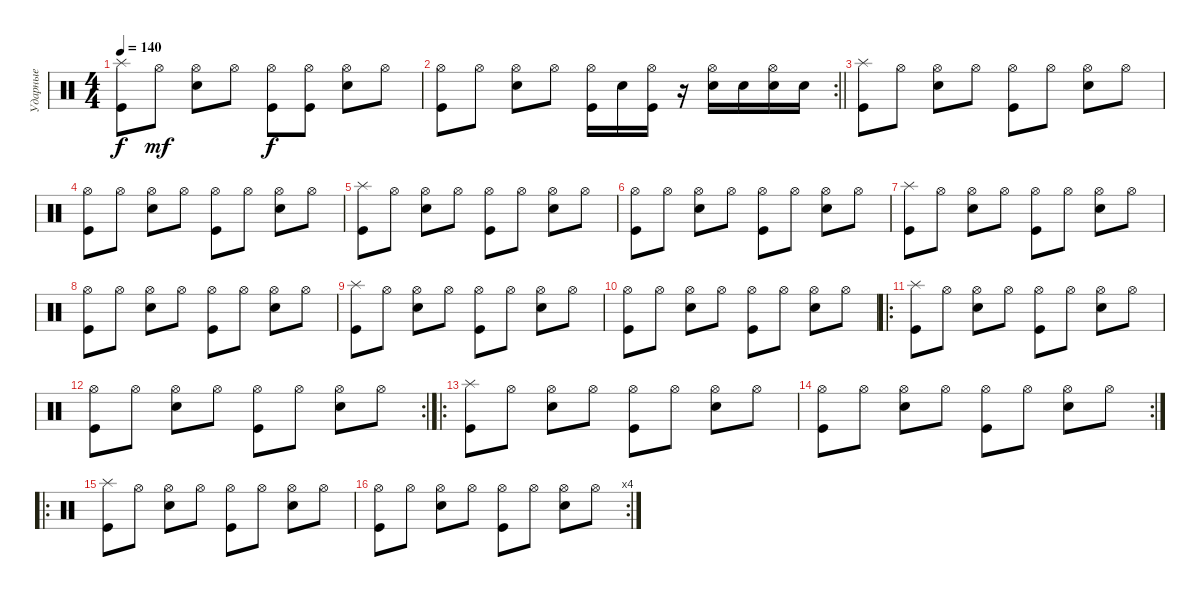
\track ("Ударные" "Ударные") {instrument percussion}
\staff {score}
\articulation defaults
\ts (4 4)
\tempo 140
\clef neutral
\ks c
("Splash (hit)" "Kick (hit)").8{dy f} "Hi-Hat (open)".8{dy mf} ("Hi-Hat (open)" "Snare (hit) 2").8 "Hi-Hat (open)".8 ("Hi-Hat (open)" "Kick (hit)").8{dy f} ("Hi-Hat (open)" "Kick (hit)").8 ("Hi-Hat (open)" "Snare (hit) 2").8 "Hi-Hat (open)".8 |
\rc 2
\barLineRight lightlight
("Hi-Hat (open)" "Kick (hit)").8 "Hi-Hat (open)".8 ("Hi-Hat (open)" "Snare (hit) 2").8 "Hi-Hat (open)".8 ("Hi-Hat (open)" "Kick (hit)").16 "Snare (hit) 2".16 ("Hi-Hat (open)" "Kick (hit)").16 r.16 ("Hi-Hat (open)" "Snare (hit) 2").16 "Snare (hit) 2".16 ("Hi-Hat (open)" "Snare (hit) 2").16 "Snare (hit) 2".16 |
("Splash (hit)" "Kick (hit)").8 "Hi-Hat (open)".8 ("Hi-Hat (open)" "Snare (hit) 2").8 "Hi-Hat (open)".8 ("Hi-Hat (open)" "Kick (hit)").8 "Hi-Hat (open)".8 ("Hi-Hat (open)" "Snare (hit) 2").8 "Hi-Hat (open)".8 |
("Hi-Hat (open)" "Kick (hit)").8 "Hi-Hat (open)".8 ("Hi-Hat (open)" "Snare (hit) 2").8 "Hi-Hat (open)".8 ("Hi-Hat (open)" "Kick (hit)").8 "Hi-Hat (open)".8 ("Hi-Hat (open)" "Snare (hit) 2").8 "Hi-Hat (open)".8 |
("Splash (hit)" "Kick (hit)").8 "Hi-Hat (open)".8 ("Hi-Hat (open)" "Snare (hit) 2").8 "Hi-Hat (open)".8 ("Hi-Hat (open)" "Kick (hit)").8 "Hi-Hat (open)".8 ("Hi-Hat (open)" "Snare (hit) 2").8 "Hi-Hat (open)".8 |
("Hi-Hat (open)" "Kick (hit)").8 "Hi-Hat (open)".8 ("Hi-Hat (open)" "Snare (hit) 2").8 "Hi-Hat (open)".8 ("Hi-Hat (open)" "Kick (hit)").8 "Hi-Hat (open)".8 ("Hi-Hat (open)" "Snare (hit) 2").8 "Hi-Hat (open)".8 |
("Splash (hit)" "Kick (hit)").8 "Hi-Hat (open)".8 ("Hi-Hat (open)" "Snare (hit) 2").8 "Hi-Hat (open)".8 ("Hi-Hat (open)" "Kick (hit)").8 "Hi-Hat (open)".8 ("Hi-Hat (open)" "Snare (hit) 2").8 "Hi-Hat (open)".8 |
("Hi-Hat (open)" "Kick (hit)").8 "Hi-Hat (open)".8 ("Hi-Hat (open)" "Snare (hit) 2").8 "Hi-Hat (open)".8 ("Hi-Hat (open)" "Kick (hit)").8 "Hi-Hat (open)".8 ("Hi-Hat (open)" "Snare (hit) 2").8 "Hi-Hat (open)".8 |
("Splash (hit)" "Kick (hit)").8 "Hi-Hat (open)".8 ("Hi-Hat (open)" "Snare (hit) 2").8 "Hi-Hat (open)".8 ("Hi-Hat (open)" "Kick (hit)").8 "Hi-Hat (open)".8 ("Hi-Hat (open)" "Snare (hit) 2").8 "Hi-Hat (open)".8 |
("Hi-Hat (open)" "Kick (hit)").8 "Hi-Hat (open)".8 ("Hi-Hat (open)" "Snare (hit) 2").8 "Hi-Hat (open)".8 ("Hi-Hat (open)" "Kick (hit)").8 "Hi-Hat (open)".8 ("Hi-Hat (open)" "Snare (hit) 2").8 "Hi-Hat (open)".8 |
\ro
("Splash (hit)" "Kick (hit)").8 "Hi-Hat (open)".8 ("Hi-Hat (open)" "Snare (hit) 2").8 "Hi-Hat (open)".8 ("Hi-Hat (open)" "Kick (hit)").8 "Hi-Hat (open)".8 ("Hi-Hat (open)" "Snare (hit) 2").8 "Hi-Hat (open)".8 |
\rc 2
("Hi-Hat (open)" "Kick (hit)").8 "Hi-Hat (open)".8 ("Hi-Hat (open)" "Snare (hit) 2").8 "Hi-Hat (open)".8 ("Hi-Hat (open)" "Kick (hit)").8 "Hi-Hat (open)".8 ("Hi-Hat (open)" "Snare (hit) 2").8 "Hi-Hat (open)".8 |
\ro
("Splash (hit)" "Kick (hit)").8 "Hi-Hat (open)".8 ("Hi-Hat (open)" "Snare (hit) 2").8 "Hi-Hat (open)".8 ("Hi-Hat (open)" "Kick (hit)").8 "Hi-Hat (open)".8 ("Hi-Hat (open)" "Snare (hit) 2").8 "Hi-Hat (open)".8 |
\rc 2
("Hi-Hat (open)" "Kick (hit)").8 "Hi-Hat (open)".8 ("Hi-Hat (open)" "Snare (hit) 2").8 "Hi-Hat (open)".8 ("Hi-Hat (open)" "Kick (hit)").8 "Hi-Hat (open)".8 ("Hi-Hat (open)" "Snare (hit) 2").8 "Hi-Hat (open)".8 |
\ro
("Splash (hit)" "Kick (hit)").8 "Hi-Hat (open)".8 ("Hi-Hat (open)" "Snare (hit) 2").8 "Hi-Hat (open)".8 ("Hi-Hat (open)" "Kick (hit)").8 "Hi-Hat (open)".8 ("Hi-Hat (open)" "Snare (hit) 2").8 "Hi-Hat (open)".8 |
\rc 4
("Hi-Hat (open)" "Kick (hit)").8 "Hi-Hat (open)".8 ("Hi-Hat (open)" "Snare (hit) 2").8 "Hi-Hat (open)".8 ("Hi-Hat (open)" "Kick (hit)").8 "Hi-Hat (open)".8 ("Hi-Hat (open)" "Snare (hit) 2").8 "Hi-Hat (open)".8
